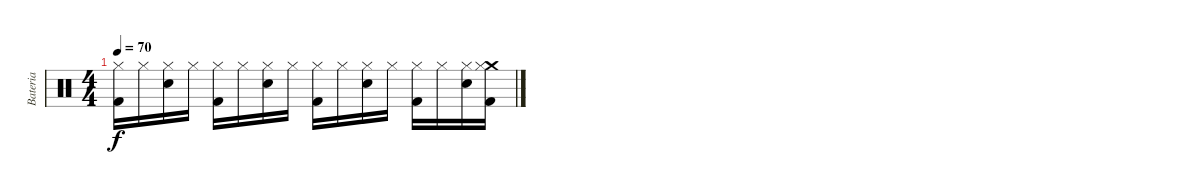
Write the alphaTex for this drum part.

\track ("Bateria" "Bateria") {instrument percussion}
\staff {score}
\articulation defaults
\ts (4 4)
\tempo 70
\clef neutral
\ks c
("Kick (hit) 2" "Hi-Hat (closed)").16{dy f} "Hi-Hat (closed)".16 ("Snare (hit) 2" "Hi-Hat (closed)").16 "Hi-Hat (closed)".16 ("Kick (hit) 2" "Hi-Hat (closed)").16 "Hi-Hat (closed)".16 ("Snare (hit) 2" "Hi-Hat (closed)").16 "Hi-Hat (closed)".16 ("Kick (hit) 2" "Hi-Hat (closed)").16 "Hi-Hat (closed)".16 ("Snare (hit) 2" "Hi-Hat (closed)").16 "Hi-Hat (closed)".16 ("Kick (hit) 2" "Hi-Hat (closed)").16 "Hi-Hat (closed)".16 ("Snare (hit) 2" "Hi-Hat (closed)").16 ("Kick (hit) 2" "Crash medium (hit)" "Hi-Hat (closed)").16
